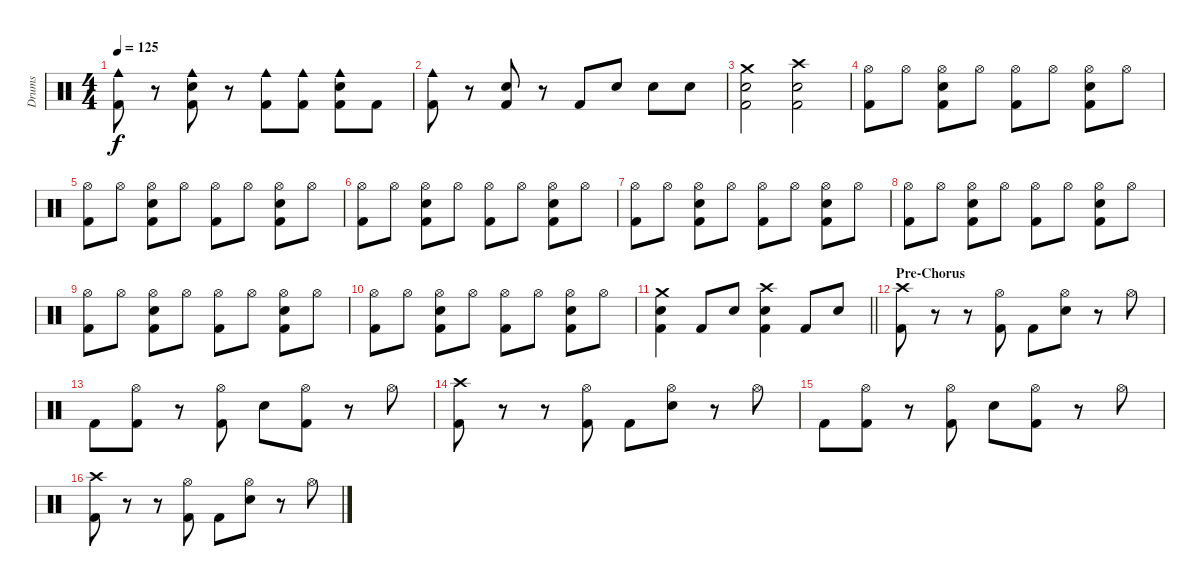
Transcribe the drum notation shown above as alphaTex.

\track ("Drums" "Drums") {instrument percussion}
\staff {score}
\articulation defaults
\ts (4 4)
\tempo 125
\clef neutral
\ks c
("Cowbell medium (hit)" "Kick (hit) 2").8{dy f} r.8 ("Cowbell medium (hit)" "Snare (hit) 2" "Kick (hit) 2").8 r.8 ("Cowbell medium (hit)" "Kick (hit) 2").8 ("Cowbell medium (hit)" "Kick (hit) 2").8 ("Cowbell medium (hit)" "Snare (hit) 2" "Kick (hit) 2").8 "Kick (hit) 2".8 |
("Cowbell medium (hit)" "Kick (hit) 2").8 r.8 ("Snare (hit) 2" "Kick (hit) 2").8 r.8 "Kick (hit) 2".8 "Snare (hit) 2".8 "Snare (hit) 2".8 "Snare (hit) 2".8 |
("Crash medium (hit)" "Snare (hit) 2" "Kick (hit) 2").2 ("Crash high (hit)" "Snare (hit) 2" "Kick (hit) 2").2 |
("Hi-Hat (open)" "Kick (hit) 2").8 "Hi-Hat (open)".8 ("Hi-Hat (open)" "Snare (hit) 2" "Kick (hit) 2").8 "Hi-Hat (open)".8 ("Hi-Hat (open)" "Kick (hit) 2").8 "Hi-Hat (open)".8 ("Hi-Hat (open)" "Snare (hit) 2" "Kick (hit) 2").8 "Hi-Hat (open)".8 |
("Hi-Hat (open)" "Kick (hit) 2").8 "Hi-Hat (open)".8 ("Hi-Hat (open)" "Snare (hit) 2" "Kick (hit) 2").8 "Hi-Hat (open)".8 ("Hi-Hat (open)" "Kick (hit) 2").8 "Hi-Hat (open)".8 ("Hi-Hat (open)" "Snare (hit) 2" "Kick (hit) 2").8 "Hi-Hat (open)".8 |
("Hi-Hat (open)" "Kick (hit) 2").8 "Hi-Hat (open)".8 ("Hi-Hat (open)" "Snare (hit) 2" "Kick (hit) 2").8 "Hi-Hat (open)".8 ("Hi-Hat (open)" "Kick (hit) 2").8 "Hi-Hat (open)".8 ("Hi-Hat (open)" "Snare (hit) 2" "Kick (hit) 2").8 "Hi-Hat (open)".8 |
("Hi-Hat (open)" "Kick (hit) 2").8 "Hi-Hat (open)".8 ("Hi-Hat (open)" "Snare (hit) 2" "Kick (hit) 2").8 "Hi-Hat (open)".8 ("Hi-Hat (open)" "Kick (hit) 2").8 "Hi-Hat (open)".8 ("Hi-Hat (open)" "Snare (hit) 2" "Kick (hit) 2").8 "Hi-Hat (open)".8 |
("Hi-Hat (open)" "Kick (hit) 2").8 "Hi-Hat (open)".8 ("Hi-Hat (open)" "Snare (hit) 2" "Kick (hit) 2").8 "Hi-Hat (open)".8 ("Hi-Hat (open)" "Kick (hit) 2").8 "Hi-Hat (open)".8 ("Hi-Hat (open)" "Snare (hit) 2" "Kick (hit) 2").8 "Hi-Hat (open)".8 |
("Hi-Hat (open)" "Kick (hit) 2").8 "Hi-Hat (open)".8 ("Hi-Hat (open)" "Snare (hit) 2" "Kick (hit) 2").8 "Hi-Hat (open)".8 ("Hi-Hat (open)" "Kick (hit) 2").8 "Hi-Hat (open)".8 ("Hi-Hat (open)" "Snare (hit) 2" "Kick (hit) 2").8 "Hi-Hat (open)".8 |
("Hi-Hat (open)" "Kick (hit) 2").8 "Hi-Hat (open)".8 ("Hi-Hat (open)" "Snare (hit) 2" "Kick (hit) 2").8 "Hi-Hat (open)".8 ("Hi-Hat (open)" "Kick (hit) 2").8 "Hi-Hat (open)".8 ("Hi-Hat (open)" "Snare (hit) 2" "Kick (hit) 2").8 "Hi-Hat (open)".8 |
\barLineRight lightlight
("Crash medium (hit)" "Snare (hit) 2" "Kick (hit) 2").4 "Kick (hit) 2".8 "Snare (hit) 2".8 ("Crash high (hit)" "Snare (hit) 2" "Kick (hit) 2").4 "Kick (hit) 2".8 "Snare (hit) 2".8 |
\section ("" "Pre-Chorus")
("Crash high (hit)" "Kick (hit) 2").8 r.8 r.8 ("Hi-Hat (open)" "Kick (hit) 2").8 "Kick (hit) 2".8 ("Hi-Hat (open)" "Snare (hit) 2").8 r.8 "Hi-Hat (open)".8 |
"Kick (hit) 2".8 ("Hi-Hat (open)" "Kick (hit) 2").8 r.8 ("Hi-Hat (open)" "Kick (hit) 2").8 "Snare (hit) 2".8 ("Hi-Hat (open)" "Kick (hit) 2").8 r.8 "Hi-Hat (open)".8 |
("Crash high (hit)" "Kick (hit) 2").8 r.8 r.8 ("Hi-Hat (open)" "Kick (hit) 2").8 "Kick (hit) 2".8 ("Hi-Hat (open)" "Snare (hit) 2").8 r.8 "Hi-Hat (open)".8 |
"Kick (hit) 2".8 ("Hi-Hat (open)" "Kick (hit) 2").8 r.8 ("Hi-Hat (open)" "Kick (hit) 2").8 "Snare (hit) 2".8 ("Hi-Hat (open)" "Kick (hit) 2").8 r.8 "Hi-Hat (open)".8 |
("Crash high (hit)" "Kick (hit) 2").8 r.8 r.8 ("Hi-Hat (open)" "Kick (hit) 2").8 "Kick (hit) 2".8 ("Hi-Hat (open)" "Snare (hit) 2").8 r.8 "Hi-Hat (open)".8
